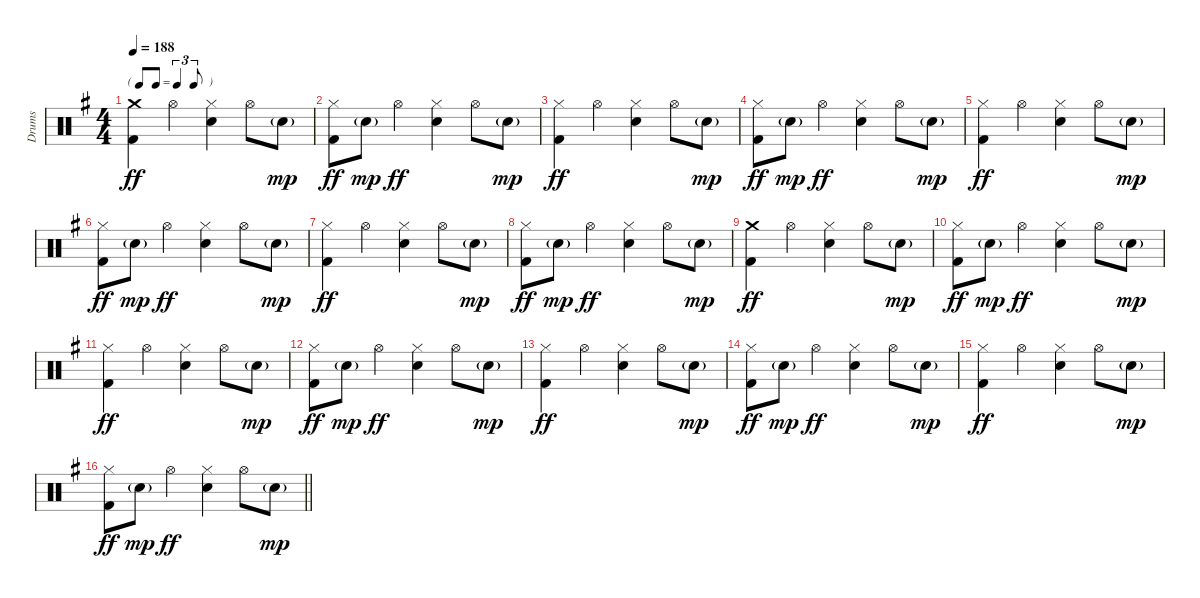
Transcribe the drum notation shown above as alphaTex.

\track ("Drums" "Drums") {instrument percussion}
\staff {score}
\articulation defaults
\ts (4 4)
\tf triplet8th
\tempo 188
\clef neutral
\ks g
("Crash medium (hit)" "Kick (hit) 2").4{dy ff} "Hi-Hat (open)".4 ("Hi-Hat (closed)" "Snare (hit) 2").4 "Hi-Hat (open)".8 "Snare (hit) 2"{g}.8{dy mp} |
("Hi-Hat (closed)" "Kick (hit) 2").8{dy ff} "Snare (hit) 2"{g}.8{dy mp} "Hi-Hat (open)".4{dy ff} ("Hi-Hat (closed)" "Snare (hit) 2").4 "Hi-Hat (open)".8 "Snare (hit) 2"{g}.8{dy mp} |
("Hi-Hat (closed)" "Kick (hit) 2").4{dy ff} "Hi-Hat (open)".4 ("Hi-Hat (closed)" "Snare (hit) 2").4 "Hi-Hat (open)".8 "Snare (hit) 2"{g}.8{dy mp} |
("Hi-Hat (closed)" "Kick (hit) 2").8{dy ff} "Snare (hit) 2"{g}.8{dy mp} "Hi-Hat (open)".4{dy ff} ("Hi-Hat (closed)" "Snare (hit) 2").4 "Hi-Hat (open)".8 "Snare (hit) 2"{g}.8{dy mp} |
("Hi-Hat (closed)" "Kick (hit) 2").4{dy ff} "Hi-Hat (open)".4 ("Hi-Hat (closed)" "Snare (hit) 2").4 "Hi-Hat (open)".8 "Snare (hit) 2"{g}.8{dy mp} |
("Hi-Hat (closed)" "Kick (hit) 2").8{dy ff} "Snare (hit) 2"{g}.8{dy mp} "Hi-Hat (open)".4{dy ff} ("Hi-Hat (closed)" "Snare (hit) 2").4 "Hi-Hat (open)".8 "Snare (hit) 2"{g}.8{dy mp} |
("Hi-Hat (closed)" "Kick (hit) 2").4{dy ff} "Hi-Hat (open)".4 ("Hi-Hat (closed)" "Snare (hit) 2").4 "Hi-Hat (open)".8 "Snare (hit) 2"{g}.8{dy mp} |
("Hi-Hat (closed)" "Kick (hit) 2").8{dy ff} "Snare (hit) 2"{g}.8{dy mp} "Hi-Hat (open)".4{dy ff} ("Hi-Hat (closed)" "Snare (hit) 2").4 "Hi-Hat (open)".8 "Snare (hit) 2"{g}.8{dy mp} |
("Crash medium (hit)" "Kick (hit) 2").4{dy ff} "Hi-Hat (open)".4 ("Hi-Hat (closed)" "Snare (hit) 2").4 "Hi-Hat (open)".8 "Snare (hit) 2"{g}.8{dy mp} |
("Hi-Hat (closed)" "Kick (hit) 2").8{dy ff} "Snare (hit) 2"{g}.8{dy mp} "Hi-Hat (open)".4{dy ff} ("Hi-Hat (closed)" "Snare (hit) 2").4 "Hi-Hat (open)".8 "Snare (hit) 2"{g}.8{dy mp} |
("Hi-Hat (closed)" "Kick (hit) 2").4{dy ff} "Hi-Hat (open)".4 ("Hi-Hat (closed)" "Snare (hit) 2").4 "Hi-Hat (open)".8 "Snare (hit) 2"{g}.8{dy mp} |
("Hi-Hat (closed)" "Kick (hit) 2").8{dy ff} "Snare (hit) 2"{g}.8{dy mp} "Hi-Hat (open)".4{dy ff} ("Hi-Hat (closed)" "Snare (hit) 2").4 "Hi-Hat (open)".8 "Snare (hit) 2"{g}.8{dy mp} |
("Hi-Hat (closed)" "Kick (hit) 2").4{dy ff} "Hi-Hat (open)".4 ("Hi-Hat (closed)" "Snare (hit) 2").4 "Hi-Hat (open)".8 "Snare (hit) 2"{g}.8{dy mp} |
("Hi-Hat (closed)" "Kick (hit) 2").8{dy ff} "Snare (hit) 2"{g}.8{dy mp} "Hi-Hat (open)".4{dy ff} ("Hi-Hat (closed)" "Snare (hit) 2").4 "Hi-Hat (open)".8 "Snare (hit) 2"{g}.8{dy mp} |
("Hi-Hat (closed)" "Kick (hit) 2").4{dy ff} "Hi-Hat (open)".4 ("Hi-Hat (closed)" "Snare (hit) 2").4 "Hi-Hat (open)".8 "Snare (hit) 2"{g}.8{dy mp} |
\barLineRight lightlight
("Hi-Hat (closed)" "Kick (hit) 2").8{dy ff} "Snare (hit) 2"{g}.8{dy mp} "Hi-Hat (open)".4{dy ff} ("Hi-Hat (closed)" "Snare (hit) 2").4 "Hi-Hat (open)".8 "Snare (hit) 2"{g}.8{dy mp}
